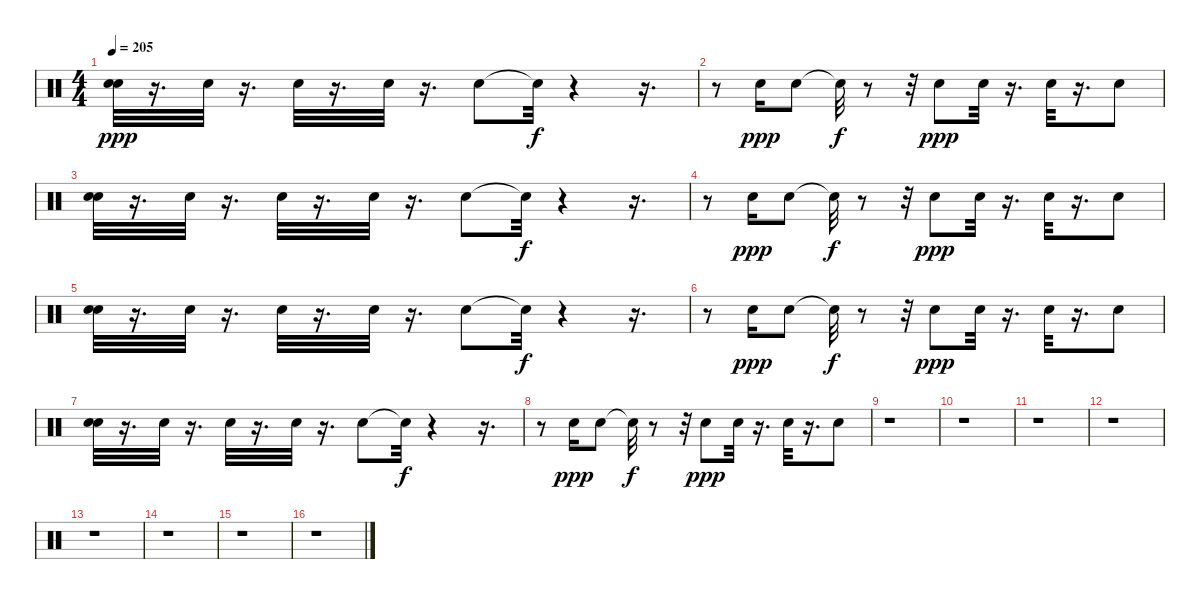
\track "" {instrument percussion}
\staff {score}
\articulation defaults
\ts (4 4)
\tempo 205
\clef neutral
\ks c
("Electric Snare (hit)" "Electric Snare (hit)").32{dy ppp} r.16{d} "Electric Snare (hit)".32 r.16{d} "Electric Snare (hit)".32 r.16{d} "Electric Snare (hit)".32 r.16{d} "Electric Snare (hit)".8 "Snare (hit)"{t}.32{dy f} r.4 r.16{d} |
r.8 "Electric Snare (hit)".16{dy ppp} "Electric Snare (hit)".8 "Snare (hit)"{t}.32{dy f} r.8 r.32 "Electric Snare (hit)".8{dy ppp} "Electric Snare (hit)".32 r.16{d} "Electric Snare (hit)".32 r.16{d} "Electric Snare (hit)".8 |
("Electric Snare (hit)" "Electric Snare (hit)").32 r.16{d} "Electric Snare (hit)".32 r.16{d} "Electric Snare (hit)".32 r.16{d} "Electric Snare (hit)".32 r.16{d} "Electric Snare (hit)".8 "Snare (hit)"{t}.32{dy f} r.4 r.16{d} |
r.8 "Electric Snare (hit)".16{dy ppp} "Electric Snare (hit)".8 "Snare (hit)"{t}.32{dy f} r.8 r.32 "Electric Snare (hit)".8{dy ppp} "Electric Snare (hit)".32 r.16{d} "Electric Snare (hit)".32 r.16{d} "Electric Snare (hit)".8 |
("Electric Snare (hit)" "Electric Snare (hit)").32 r.16{d} "Electric Snare (hit)".32 r.16{d} "Electric Snare (hit)".32 r.16{d} "Electric Snare (hit)".32 r.16{d} "Electric Snare (hit)".8 "Snare (hit)"{t}.32{dy f} r.4 r.16{d} |
r.8 "Electric Snare (hit)".16{dy ppp} "Electric Snare (hit)".8 "Snare (hit)"{t}.32{dy f} r.8 r.32 "Electric Snare (hit)".8{dy ppp} "Electric Snare (hit)".32 r.16{d} "Electric Snare (hit)".32 r.16{d} "Electric Snare (hit)".8 |
("Electric Snare (hit)" "Electric Snare (hit)").32 r.16{d} "Electric Snare (hit)".32 r.16{d} "Electric Snare (hit)".32 r.16{d} "Electric Snare (hit)".32 r.16{d} "Electric Snare (hit)".8 "Snare (hit)"{t}.32{dy f} r.4 r.16{d} |
r.8 "Electric Snare (hit)".16{dy ppp} "Electric Snare (hit)".8 "Snare (hit)"{t}.32{dy f} r.8 r.32 "Electric Snare (hit)".8{dy ppp} "Electric Snare (hit)".32 r.16{d} "Electric Snare (hit)".32 r.16{d} "Electric Snare (hit)".8 |
r.1 |
r.1 |
r.1 |
r.1 |
r.1 |
r.1 |
r.1 |
r.1
